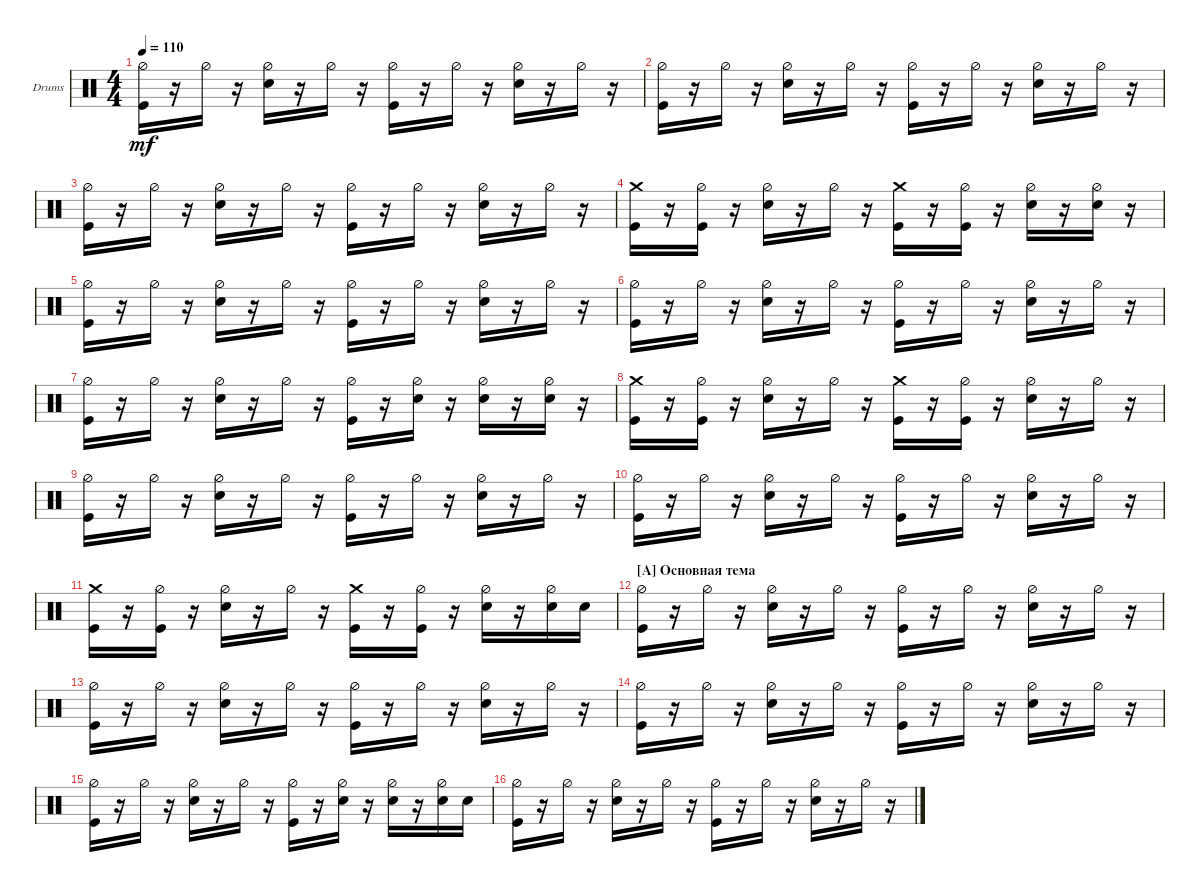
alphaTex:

\defaultSystemsLayout 4
\bracketExtendMode groupsimilarinstruments
\firstSystemTrackNameOrientation horizontal
\otherSystemsTrackNameOrientation horizontal
\track ("Барабаны" "Drums") {instrument percussion}
\staff {score}
\articulation defaults
\ts (4 4)
\tempo 110
\clef neutral
\ks c
("Kick (hit)" "Hi-Hat (half)").16{dy mf} r.16 "Hi-Hat (half)".16 r.16 ("Hi-Hat (half)" "Snare (hit) 2").16 r.16 "Hi-Hat (half)".16 r.16 ("Kick (hit)" "Hi-Hat (half)").16 r.16 "Hi-Hat (half)".16 r.16 ("Hi-Hat (half)" "Snare (hit) 2").16 r.16 "Hi-Hat (half)".16 r.16 |
("Kick (hit)" "Hi-Hat (half)").16 r.16 "Hi-Hat (half)".16 r.16 ("Hi-Hat (half)" "Snare (hit) 2").16 r.16 "Hi-Hat (half)".16 r.16 ("Kick (hit)" "Hi-Hat (half)").16 r.16 "Hi-Hat (half)".16 r.16 ("Hi-Hat (half)" "Snare (hit) 2").16 r.16 "Hi-Hat (half)".16 r.16 |
("Kick (hit)" "Hi-Hat (half)").16 r.16 "Hi-Hat (half)".16 r.16 ("Hi-Hat (half)" "Snare (hit) 2").16 r.16 "Hi-Hat (half)".16 r.16 ("Kick (hit)" "Hi-Hat (half)").16 r.16 "Hi-Hat (half)".16 r.16 ("Hi-Hat (half)" "Snare (hit) 2").16 r.16 "Hi-Hat (half)".16 r.16 |
("Kick (hit)" "Crash medium (hit)").16 r.16 ("Kick (hit)" "Hi-Hat (half)").16 r.16 ("Hi-Hat (half)" "Snare (hit) 2").16 r.16 "Hi-Hat (half)".16 r.16 ("Kick (hit)" "Crash medium (hit)").16 r.16 ("Kick (hit)" "Hi-Hat (half)").16 r.16 ("Hi-Hat (half)" "Snare (hit) 2").16 r.16 ("Hi-Hat (half)" "Snare (hit) 2").16 r.16 |
("Kick (hit)" "Hi-Hat (half)").16 r.16 "Hi-Hat (half)".16 r.16 ("Hi-Hat (half)" "Snare (hit) 2").16 r.16 "Hi-Hat (half)".16 r.16 ("Kick (hit)" "Hi-Hat (half)").16 r.16 "Hi-Hat (half)".16 r.16 ("Hi-Hat (half)" "Snare (hit) 2").16 r.16 "Hi-Hat (half)".16 r.16 |
("Kick (hit)" "Hi-Hat (half)").16 r.16 "Hi-Hat (half)".16 r.16 ("Hi-Hat (half)" "Snare (hit) 2").16 r.16 "Hi-Hat (half)".16 r.16 ("Kick (hit)" "Hi-Hat (half)").16 r.16 "Hi-Hat (half)".16 r.16 ("Hi-Hat (half)" "Snare (hit) 2").16 r.16 "Hi-Hat (half)".16 r.16 |
("Kick (hit)" "Hi-Hat (half)").16 r.16 "Hi-Hat (half)".16 r.16 ("Hi-Hat (half)" "Snare (hit) 2").16 r.16 "Hi-Hat (half)".16 r.16 ("Kick (hit)" "Hi-Hat (half)").16 r.16 ("Hi-Hat (half)" "Snare (hit) 2").16 r.16 ("Hi-Hat (half)" "Snare (hit) 2").16 r.16 ("Hi-Hat (half)" "Snare (hit) 2").16 r.16 |
("Kick (hit)" "Crash medium (hit)").16 r.16 ("Kick (hit)" "Hi-Hat (half)").16 r.16 ("Hi-Hat (half)" "Snare (hit) 2").16 r.16 "Hi-Hat (half)".16 r.16 ("Kick (hit)" "Crash medium (hit)").16 r.16 ("Kick (hit)" "Hi-Hat (half)").16 r.16 ("Hi-Hat (half)" "Snare (hit) 2").16 r.16 "Hi-Hat (half)".16 r.16 |
("Kick (hit)" "Hi-Hat (half)").16 r.16 "Hi-Hat (half)".16 r.16 ("Hi-Hat (half)" "Snare (hit) 2").16 r.16 "Hi-Hat (half)".16 r.16 ("Kick (hit)" "Hi-Hat (half)").16 r.16 "Hi-Hat (half)".16 r.16 ("Hi-Hat (half)" "Snare (hit) 2").16 r.16 "Hi-Hat (half)".16 r.16 |
("Kick (hit)" "Hi-Hat (half)").16 r.16 "Hi-Hat (half)".16 r.16 ("Hi-Hat (half)" "Snare (hit) 2").16 r.16 "Hi-Hat (half)".16 r.16 ("Kick (hit)" "Hi-Hat (half)").16 r.16 "Hi-Hat (half)".16 r.16 ("Hi-Hat (half)" "Snare (hit) 2").16 r.16 "Hi-Hat (half)".16 r.16 |
("Kick (hit)" "Crash medium (hit)").16 r.16 ("Kick (hit)" "Hi-Hat (half)").16 r.16 ("Hi-Hat (half)" "Snare (hit) 2").16 r.16 "Hi-Hat (half)".16 r.16 ("Kick (hit)" "Crash medium (hit)").16 r.16 ("Kick (hit)" "Hi-Hat (half)").16 r.16 ("Hi-Hat (half)" "Snare (hit) 2").16 r.16 ("Hi-Hat (half)" "Snare (hit) 2").16 "Snare (hit) 2".16 |
\section ("A" "Основная тема")
("Kick (hit)" "Hi-Hat (half)").16 r.16 "Hi-Hat (half)".16 r.16 ("Hi-Hat (half)" "Snare (hit) 2").16 r.16 "Hi-Hat (half)".16 r.16 ("Kick (hit)" "Hi-Hat (half)").16 r.16 "Hi-Hat (half)".16 r.16 ("Hi-Hat (half)" "Snare (hit) 2").16 r.16 "Hi-Hat (half)".16 r.16 |
("Kick (hit)" "Hi-Hat (half)").16 r.16 "Hi-Hat (half)".16 r.16 ("Hi-Hat (half)" "Snare (hit) 2").16 r.16 "Hi-Hat (half)".16 r.16 ("Kick (hit)" "Hi-Hat (half)").16 r.16 "Hi-Hat (half)".16 r.16 ("Hi-Hat (half)" "Snare (hit) 2").16 r.16 "Hi-Hat (half)".16 r.16 |
("Kick (hit)" "Hi-Hat (half)").16 r.16 "Hi-Hat (half)".16 r.16 ("Hi-Hat (half)" "Snare (hit) 2").16 r.16 "Hi-Hat (half)".16 r.16 ("Kick (hit)" "Hi-Hat (half)").16 r.16 "Hi-Hat (half)".16 r.16 ("Hi-Hat (half)" "Snare (hit) 2").16 r.16 "Hi-Hat (half)".16 r.16 |
("Kick (hit)" "Hi-Hat (half)").16 r.16 "Hi-Hat (half)".16 r.16 ("Hi-Hat (half)" "Snare (hit) 2").16 r.16 "Hi-Hat (half)".16 r.16 ("Kick (hit)" "Hi-Hat (half)").16 r.16 ("Hi-Hat (half)" "Snare (hit) 2").16 r.16 ("Hi-Hat (half)" "Snare (hit) 2").16 r.16 ("Hi-Hat (half)" "Snare (hit) 2").16 "Snare (hit) 2".16 |
("Kick (hit)" "Hi-Hat (half)").16 r.16 "Hi-Hat (half)".16 r.16 ("Hi-Hat (half)" "Snare (hit) 2").16 r.16 "Hi-Hat (half)".16 r.16 ("Kick (hit)" "Hi-Hat (half)").16 r.16 "Hi-Hat (half)".16 r.16 ("Hi-Hat (half)" "Snare (hit) 2").16 r.16 "Hi-Hat (half)".16 r.16
